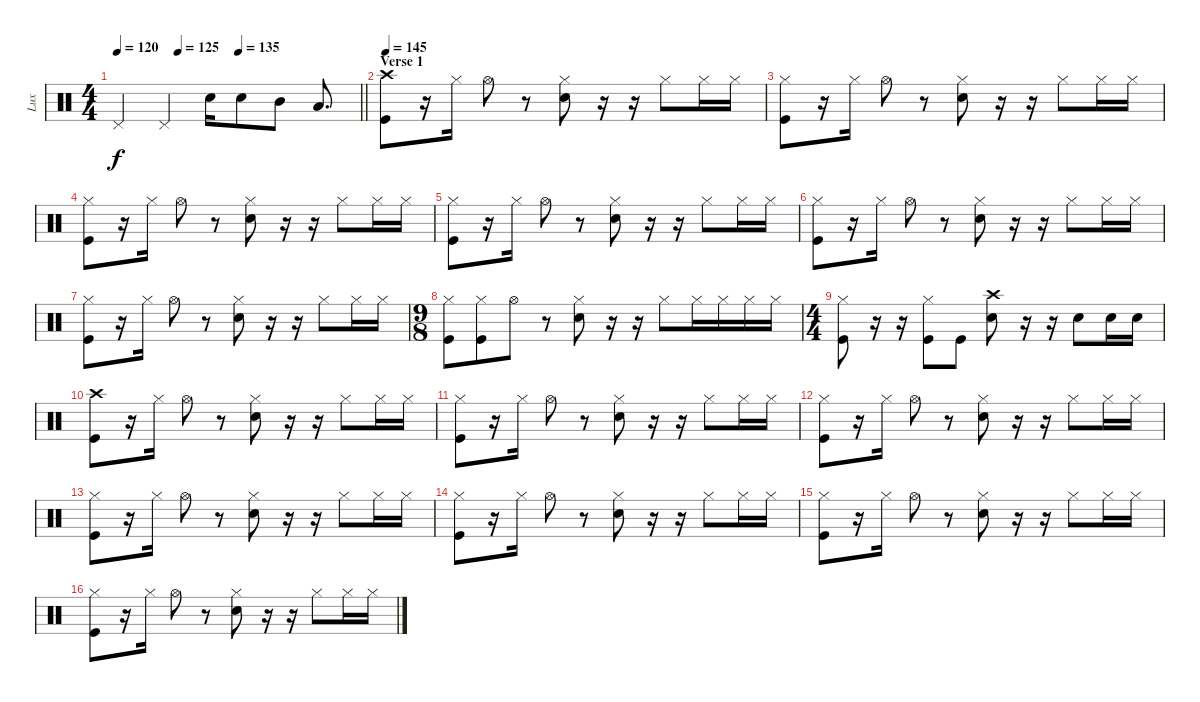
\track ("Lux" "Lux") {mute instrument percussion}
\staff {score}
\articulation defaults
\ts (4 4)
\tempo 120
\tempo (125 0.25)
\tempo (135 0.5)
\clef neutral
\barLineRight lightlight
\ks c "Pedal Hi-Hat (hit)".4{dy f} "Pedal Hi-Hat (hit)".4 "Snare (hit) 2".16 "Snare (hit) 2".8 "Mid Tom (hit)".8 "Low Tom (hit)".8{d}
|
\section ("" "Verse 1")
\tempo 145
("Crash high (hit)" "Kick (hit)").8 r.16 "Hi-Hat (closed)".16 "Hi-Hat (open)".8 r.8 ("Hi-Hat (closed)" "Snare (hit) 2").8 r.16 r.16 "Hi-Hat (closed)".8 "Hi-Hat (closed)".16 "Hi-Hat (closed)".16 |
("Hi-Hat (closed)" "Kick (hit)").8 r.16 "Hi-Hat (closed)".16 "Hi-Hat (open)".8 r.8 ("Hi-Hat (closed)" "Snare (hit) 2").8 r.16 r.16 "Hi-Hat (closed)".8 "Hi-Hat (closed)".16 "Hi-Hat (closed)".16 |
("Hi-Hat (closed)" "Kick (hit)").8 r.16 "Hi-Hat (closed)".16 "Hi-Hat (open)".8 r.8 ("Hi-Hat (closed)" "Snare (hit) 2").8 r.16 r.16 "Hi-Hat (closed)".8 "Hi-Hat (closed)".16 "Hi-Hat (closed)".16 |
("Hi-Hat (closed)" "Kick (hit)").8 r.16 "Hi-Hat (closed)".16 "Hi-Hat (open)".8 r.8 ("Hi-Hat (closed)" "Snare (hit) 2").8 r.16 r.16 "Hi-Hat (closed)".8 "Hi-Hat (closed)".16 "Hi-Hat (closed)".16 |
("Hi-Hat (closed)" "Kick (hit)").8 r.16 "Hi-Hat (closed)".16 "Hi-Hat (open)".8 r.8 ("Hi-Hat (closed)" "Snare (hit) 2").8 r.16 r.16 "Hi-Hat (closed)".8 "Hi-Hat (closed)".16 "Hi-Hat (closed)".16 |
("Hi-Hat (closed)" "Kick (hit)").8 r.16 "Hi-Hat (closed)".16 "Hi-Hat (open)".8 r.8 ("Hi-Hat (closed)" "Snare (hit) 2").8 r.16 r.16 "Hi-Hat (closed)".8 "Hi-Hat (closed)".16 "Hi-Hat (closed)".16 |
\ts (9 8)
("Hi-Hat (closed)" "Kick (hit)").8 ("Hi-Hat (closed)" "Kick (hit)").8 "Hi-Hat (open)".8 r.8 ("Hi-Hat (closed)" "Snare (hit) 2").8 r.16 r.16 "Hi-Hat (closed)".8 "Hi-Hat (closed)".16 "Hi-Hat (closed)".16 "Hi-Hat (closed)".16 "Hi-Hat (closed)".16 |
\ts (4 4)
("Hi-Hat (closed)" "Kick (hit)").8 r.16 r.16 ("Hi-Hat (closed)" "Kick (hit)").8 "Kick (hit)".8 ("Crash high (hit)" "Snare (hit) 2").8 r.16 r.16 "Snare (hit) 2".8 "Snare (hit) 2".16 "Snare (hit) 2".16 |
("Crash high (hit)" "Kick (hit)").8 r.16 "Hi-Hat (closed)".16 "Hi-Hat (open)".8 r.8 ("Hi-Hat (closed)" "Snare (hit) 2").8 r.16 r.16 "Hi-Hat (closed)".8 "Hi-Hat (closed)".16 "Hi-Hat (closed)".16 |
("Hi-Hat (closed)" "Kick (hit)").8 r.16 "Hi-Hat (closed)".16 "Hi-Hat (open)".8 r.8 ("Hi-Hat (closed)" "Snare (hit) 2").8 r.16 r.16 "Hi-Hat (closed)".8 "Hi-Hat (closed)".16 "Hi-Hat (closed)".16 |
("Hi-Hat (closed)" "Kick (hit)").8 r.16 "Hi-Hat (closed)".16 "Hi-Hat (open)".8 r.8 ("Hi-Hat (closed)" "Snare (hit) 2").8 r.16 r.16 "Hi-Hat (closed)".8 "Hi-Hat (closed)".16 "Hi-Hat (closed)".16 |
("Hi-Hat (closed)" "Kick (hit)").8 r.16 "Hi-Hat (closed)".16 "Hi-Hat (open)".8 r.8 ("Hi-Hat (closed)" "Snare (hit) 2").8 r.16 r.16 "Hi-Hat (closed)".8 "Hi-Hat (closed)".16 "Hi-Hat (closed)".16 |
("Hi-Hat (closed)" "Kick (hit)").8 r.16 "Hi-Hat (closed)".16 "Hi-Hat (open)".8 r.8 ("Hi-Hat (closed)" "Snare (hit) 2").8 r.16 r.16 "Hi-Hat (closed)".8 "Hi-Hat (closed)".16 "Hi-Hat (closed)".16 |
("Hi-Hat (closed)" "Kick (hit)").8 r.16 "Hi-Hat (closed)".16 "Hi-Hat (open)".8 r.8 ("Hi-Hat (closed)" "Snare (hit) 2").8 r.16 r.16 "Hi-Hat (closed)".8 "Hi-Hat (closed)".16 "Hi-Hat (closed)".16 |
("Hi-Hat (closed)" "Kick (hit)").8 r.16 "Hi-Hat (closed)".16 "Hi-Hat (open)".8 r.8 ("Hi-Hat (closed)" "Snare (hit) 2").8 r.16 r.16 "Hi-Hat (closed)".8 "Hi-Hat (closed)".16 "Hi-Hat (closed)".16
